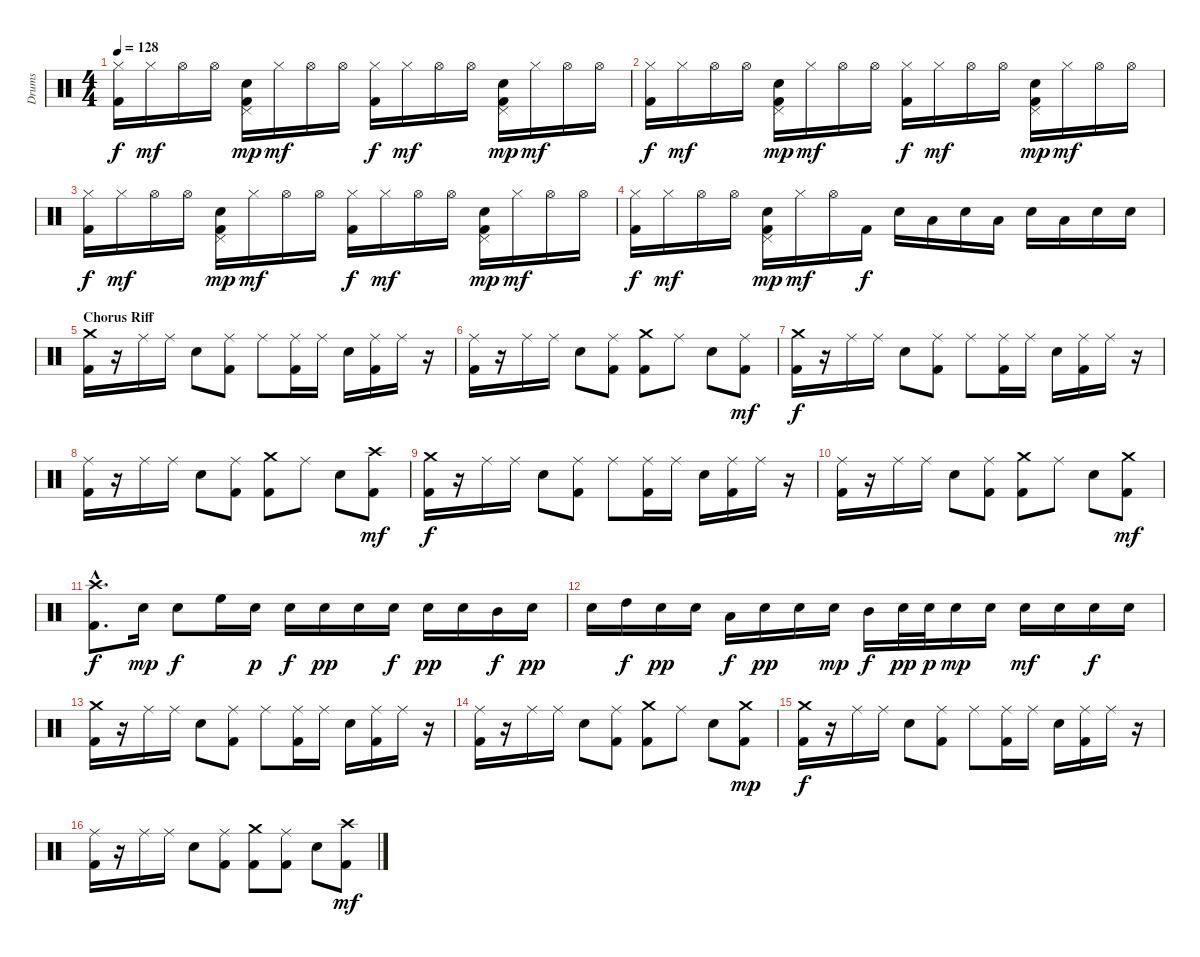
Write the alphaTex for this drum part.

\track ("Drums" "Drums") {instrument percussion}
\staff {score}
\articulation defaults
\ts (4 4)
\tempo 128
\clef neutral
\ks c
("Hi-Hat (closed)" "Kick (hit) 2").16{dy f} "Hi-Hat (closed)".16{dy mf} "Hi-Hat (open)".16 "Hi-Hat (open)".16 ("Pedal Hi-Hat (hit)" "Electric Snare (hit)" "Kick (hit) 2").16{dy mp} "Hi-Hat (closed)".16{dy mf} "Hi-Hat (open)".16 "Hi-Hat (open)".16 ("Hi-Hat (closed)" "Kick (hit) 2").16{dy f} "Hi-Hat (closed)".16{dy mf} "Hi-Hat (open)".16 "Hi-Hat (open)".16 ("Pedal Hi-Hat (hit)" "Electric Snare (hit)" "Kick (hit) 2").16{dy mp} "Hi-Hat (closed)".16{dy mf} "Hi-Hat (open)".16 "Hi-Hat (open)".16 |
("Hi-Hat (closed)" "Kick (hit) 2").16{dy f} "Hi-Hat (closed)".16{dy mf} "Hi-Hat (open)".16 "Hi-Hat (open)".16 ("Pedal Hi-Hat (hit)" "Electric Snare (hit)" "Kick (hit) 2").16{dy mp} "Hi-Hat (closed)".16{dy mf} "Hi-Hat (open)".16 "Hi-Hat (open)".16 ("Hi-Hat (closed)" "Kick (hit) 2").16{dy f} "Hi-Hat (closed)".16{dy mf} "Hi-Hat (open)".16 "Hi-Hat (open)".16 ("Pedal Hi-Hat (hit)" "Electric Snare (hit)" "Kick (hit) 2").16{dy mp} "Hi-Hat (closed)".16{dy mf} "Hi-Hat (open)".16 "Hi-Hat (open)".16 |
("Hi-Hat (closed)" "Kick (hit) 2").16{dy f} "Hi-Hat (closed)".16{dy mf} "Hi-Hat (open)".16 "Hi-Hat (open)".16 ("Pedal Hi-Hat (hit)" "Electric Snare (hit)" "Kick (hit) 2").16{dy mp} "Hi-Hat (closed)".16{dy mf} "Hi-Hat (open)".16 "Hi-Hat (open)".16 ("Hi-Hat (closed)" "Kick (hit) 2").16{dy f} "Hi-Hat (closed)".16{dy mf} "Hi-Hat (open)".16 "Hi-Hat (open)".16 ("Pedal Hi-Hat (hit)" "Electric Snare (hit)" "Kick (hit) 2").16{dy mp} "Hi-Hat (closed)".16{dy mf} "Hi-Hat (open)".16 "Hi-Hat (open)".16 |
("Hi-Hat (closed)" "Kick (hit) 2").16{dy f} "Hi-Hat (closed)".16{dy mf} "Hi-Hat (open)".16 "Hi-Hat (open)".16 ("Pedal Hi-Hat (hit)" "Electric Snare (hit)" "Kick (hit) 2").16{dy mp} "Hi-Hat (closed)".16{dy mf} "Hi-Hat (open)".16 "Kick (hit) 2".16{dy f} "Electric Snare (hit)".16 "Low Tom (hit)".16 "Electric Snare (hit)".16 "Low Tom (hit)".16 "Electric Snare (hit)".16 "Low Tom (hit)".16 "Electric Snare (hit)".16 "Electric Snare (hit)".16 |
\section ("" "Chorus Riff")
("Crash medium (hit)" "Kick (hit) 2").16 r.16 "Ride (middle)".16 "Ride (middle)".16 "Electric Snare (hit)".8 ("Ride (middle)" "Kick (hit) 2").8 "Ride (middle)".8 ("Ride (middle)" "Kick (hit) 2").16 "Ride (middle)".16 "Electric Snare (hit)".16 ("Ride (middle)" "Kick (hit) 2").16 "Ride (middle)".16 r.16 |
("Ride (middle)" "Kick (hit) 2").16 r.16 "Ride (middle)".16 "Ride (middle)".16 "Electric Snare (hit)".8 ("Ride (middle)" "Kick (hit) 2").8 ("Crash medium (hit)" "Kick (hit) 2").8 "Ride (middle)".8 "Electric Snare (hit)".8 ("Ride (middle)" "Kick (hit) 2").8{dy mf} |
("Crash medium (hit)" "Kick (hit) 2").16{dy f} r.16 "Ride (middle)".16 "Ride (middle)".16 "Electric Snare (hit)".8 ("Ride (middle)" "Kick (hit) 2").8 "Ride (middle)".8 ("Ride (middle)" "Kick (hit) 2").16 "Ride (middle)".16 "Electric Snare (hit)".16 ("Ride (middle)" "Kick (hit) 2").16 "Ride (middle)".16 r.16 |
("Ride (middle)" "Kick (hit) 2").16 r.16 "Ride (middle)".16 "Ride (middle)".16 "Electric Snare (hit)".8 ("Ride (middle)" "Kick (hit) 2").8 ("Crash medium (hit)" "Kick (hit) 2").8 "Ride (middle)".8 "Electric Snare (hit)".8 ("Crash high (hit)" "Kick (hit) 2").8{dy mf} |
("Crash medium (hit)" "Kick (hit) 2").16{dy f} r.16 "Ride (middle)".16 "Ride (middle)".16 "Electric Snare (hit)".8 ("Ride (middle)" "Kick (hit) 2").8 "Ride (middle)".8 ("Ride (middle)" "Kick (hit) 2").16 "Ride (middle)".16 "Electric Snare (hit)".16 ("Ride (middle)" "Kick (hit) 2").16 "Ride (middle)".16 r.16 |
("Ride (middle)" "Kick (hit) 2").16 r.16 "Ride (middle)".16 "Ride (middle)".16 "Electric Snare (hit)".8 ("Ride (middle)" "Kick (hit) 2").8 ("Crash medium (hit)" "Kick (hit) 2").8 "Ride (middle)".8 "Electric Snare (hit)".8 ("Crash medium (hit)" "Kick (hit) 2").8{dy mf} |
("Crash high (hit)"{hac} "Kick (hit) 2"{hac}).8{d dy f} "Electric Snare (hit)".16{dy mp} "Electric Snare (hit)".8{dy f} "High Floor Tom (hit)".16 "Electric Snare (hit)".16{dy p} "Electric Snare (hit)".16{dy f} "Electric Snare (hit)".16{dy pp} "Electric Snare (hit)".16 "Electric Snare (hit)".16{dy f} "Electric Snare (hit)".16{dy pp} "Electric Snare (hit)".16 "Mid Tom (hit)".16{dy f} "Electric Snare (hit)".16{dy pp} |
"Electric Snare (hit)".16 "High Tom (hit)".16{dy f} "Electric Snare (hit)".16{dy pp} "Electric Snare (hit)".16 "Low Tom (hit)".16{dy f} "Electric Snare (hit)".16{dy pp} "Electric Snare (hit)".16 "Electric Snare (hit)".16{dy mp} "Mid Tom (hit)".16{dy f} "Electric Snare (hit)".32{dy pp} "Electric Snare (hit)".32{dy p} "Electric Snare (hit)".16{dy mp} "Electric Snare (hit)".16 "Electric Snare (hit)".16{dy mf} "Electric Snare (hit)".16 "Electric Snare (hit)".16{dy f} "Electric Snare (hit)".16 |
("Crash medium (hit)" "Kick (hit) 2").16 r.16 "Ride (middle)".16 "Ride (middle)".16 "Electric Snare (hit)".8 ("Ride (middle)" "Kick (hit) 2").8 "Ride (middle)".8 ("Ride (middle)" "Kick (hit) 2").16 "Ride (middle)".16 "Electric Snare (hit)".16 ("Ride (middle)" "Kick (hit) 2").16 "Ride (middle)".16 r.16 |
("Ride (middle)" "Kick (hit) 2").16 r.16 "Ride (middle)".16 "Ride (middle)".16 "Electric Snare (hit)".8 ("Ride (middle)" "Kick (hit) 2").8 ("Crash medium (hit)" "Kick (hit) 2").8 "Ride (middle)".8 "Electric Snare (hit)".8 ("Crash medium (hit)" "Kick (hit) 2").8{dy mp} |
("Crash medium (hit)" "Kick (hit) 2").16{dy f} r.16 "Ride (middle)".16 "Ride (middle)".16 "Electric Snare (hit)".8 ("Ride (middle)" "Kick (hit) 2").8 "Ride (middle)".8 ("Ride (middle)" "Kick (hit) 2").16 "Ride (middle)".16 "Electric Snare (hit)".16 ("Ride (middle)" "Kick (hit) 2").16 "Ride (middle)".16 r.16 |
("Ride (middle)" "Kick (hit) 2").16 r.16 "Ride (middle)".16 "Ride (middle)".16 "Electric Snare (hit)".8 ("Ride (middle)" "Kick (hit) 2").8 ("Crash medium (hit)" "Kick (hit) 2").8 ("Ride (middle)" "Kick (hit) 2").8 "Electric Snare (hit)".8 ("Crash high (hit)" "Kick (hit) 2").8{dy mf}
